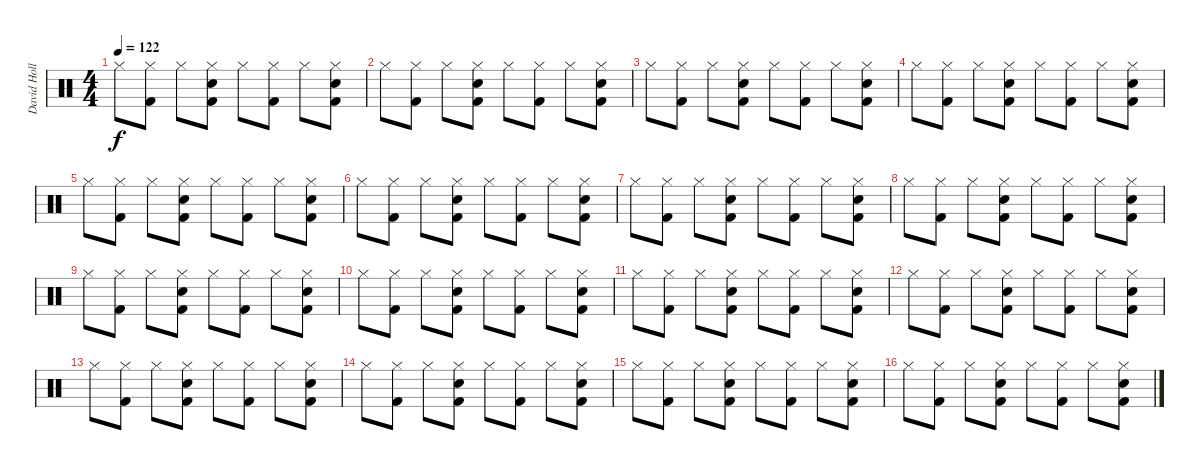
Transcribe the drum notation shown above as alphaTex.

\track ("David Holland" "David Holl") {instrument percussion}
\staff {score}
\articulation defaults
\ts (4 4)
\tempo 122
\clef neutral
\ks c "Hi-Hat (closed)".8{dy f volume 12}
("Kick (hit) 2" "Hi-Hat (closed)").8 "Hi-Hat (closed)".8 ("Electric Snare (hit)" "Kick (hit) 2" "Hi-Hat (closed)").8 "Hi-Hat (closed)".8 ("Kick (hit) 2" "Hi-Hat (closed)").8 "Hi-Hat (closed)".8 ("Electric Snare (hit)" "Kick (hit) 2" "Hi-Hat (closed)").8 |
"Hi-Hat (closed)".8 ("Kick (hit) 2" "Hi-Hat (closed)").8 "Hi-Hat (closed)".8 ("Electric Snare (hit)" "Kick (hit) 2" "Hi-Hat (closed)").8 "Hi-Hat (closed)".8 ("Kick (hit) 2" "Hi-Hat (closed)").8 "Hi-Hat (closed)".8 ("Electric Snare (hit)" "Kick (hit) 2" "Hi-Hat (closed)").8 |
"Hi-Hat (closed)".8 ("Kick (hit) 2" "Hi-Hat (closed)").8 "Hi-Hat (closed)".8 ("Electric Snare (hit)" "Kick (hit) 2" "Hi-Hat (closed)").8 "Hi-Hat (closed)".8 ("Kick (hit) 2" "Hi-Hat (closed)").8 "Hi-Hat (closed)".8 ("Electric Snare (hit)" "Kick (hit) 2" "Hi-Hat (closed)").8 |
"Hi-Hat (closed)".8 ("Kick (hit) 2" "Hi-Hat (closed)").8 "Hi-Hat (closed)".8 ("Electric Snare (hit)" "Kick (hit) 2" "Hi-Hat (closed)").8 "Hi-Hat (closed)".8 ("Kick (hit) 2" "Hi-Hat (closed)").8 "Hi-Hat (closed)".8 ("Electric Snare (hit)" "Kick (hit) 2" "Hi-Hat (closed)").8 |
"Hi-Hat (closed)".8 ("Kick (hit) 2" "Hi-Hat (closed)").8 "Hi-Hat (closed)".8 ("Electric Snare (hit)" "Kick (hit) 2" "Hi-Hat (closed)").8 "Hi-Hat (closed)".8 ("Kick (hit) 2" "Hi-Hat (closed)").8 "Hi-Hat (closed)".8 ("Electric Snare (hit)" "Kick (hit) 2" "Hi-Hat (closed)").8 |
"Hi-Hat (closed)".8 ("Kick (hit) 2" "Hi-Hat (closed)").8 "Hi-Hat (closed)".8 ("Electric Snare (hit)" "Kick (hit) 2" "Hi-Hat (closed)").8 "Hi-Hat (closed)".8 ("Kick (hit) 2" "Hi-Hat (closed)").8 "Hi-Hat (closed)".8 ("Electric Snare (hit)" "Kick (hit) 2" "Hi-Hat (closed)").8 |
"Hi-Hat (closed)".8 ("Kick (hit) 2" "Hi-Hat (closed)").8 "Hi-Hat (closed)".8 ("Electric Snare (hit)" "Kick (hit) 2" "Hi-Hat (closed)").8 "Hi-Hat (closed)".8 ("Kick (hit) 2" "Hi-Hat (closed)").8 "Hi-Hat (closed)".8 ("Electric Snare (hit)" "Kick (hit) 2" "Hi-Hat (closed)").8 |
"Hi-Hat (closed)".8 ("Kick (hit) 2" "Hi-Hat (closed)").8 "Hi-Hat (closed)".8 ("Electric Snare (hit)" "Kick (hit) 2" "Hi-Hat (closed)").8 "Hi-Hat (closed)".8 ("Kick (hit) 2" "Hi-Hat (closed)").8 "Hi-Hat (closed)".8 ("Electric Snare (hit)" "Kick (hit) 2" "Hi-Hat (closed)").8 |
"Hi-Hat (closed)".8 ("Kick (hit) 2" "Hi-Hat (closed)").8 "Hi-Hat (closed)".8 ("Electric Snare (hit)" "Kick (hit) 2" "Hi-Hat (closed)").8 "Hi-Hat (closed)".8 ("Kick (hit) 2" "Hi-Hat (closed)").8 "Hi-Hat (closed)".8 ("Electric Snare (hit)" "Kick (hit) 2" "Hi-Hat (closed)").8 |
"Hi-Hat (closed)".8 ("Kick (hit) 2" "Hi-Hat (closed)").8 "Hi-Hat (closed)".8 ("Electric Snare (hit)" "Kick (hit) 2" "Hi-Hat (closed)").8 "Hi-Hat (closed)".8 ("Kick (hit) 2" "Hi-Hat (closed)").8 "Hi-Hat (closed)".8 ("Electric Snare (hit)" "Kick (hit) 2" "Hi-Hat (closed)").8 |
"Hi-Hat (closed)".8 ("Kick (hit) 2" "Hi-Hat (closed)").8 "Hi-Hat (closed)".8 ("Electric Snare (hit)" "Kick (hit) 2" "Hi-Hat (closed)").8 "Hi-Hat (closed)".8 ("Kick (hit) 2" "Hi-Hat (closed)").8 "Hi-Hat (closed)".8 ("Electric Snare (hit)" "Kick (hit) 2" "Hi-Hat (closed)").8 |
"Hi-Hat (closed)".8 ("Kick (hit) 2" "Hi-Hat (closed)").8 "Hi-Hat (closed)".8 ("Electric Snare (hit)" "Kick (hit) 2" "Hi-Hat (closed)").8 "Hi-Hat (closed)".8 ("Kick (hit) 2" "Hi-Hat (closed)").8 "Hi-Hat (closed)".8 ("Electric Snare (hit)" "Kick (hit) 2" "Hi-Hat (closed)").8 |
"Hi-Hat (closed)".8 ("Kick (hit) 2" "Hi-Hat (closed)").8 "Hi-Hat (closed)".8 ("Electric Snare (hit)" "Kick (hit) 2" "Hi-Hat (closed)").8 "Hi-Hat (closed)".8 ("Kick (hit) 2" "Hi-Hat (closed)").8 "Hi-Hat (closed)".8 ("Electric Snare (hit)" "Kick (hit) 2" "Hi-Hat (closed)").8 |
"Hi-Hat (closed)".8 ("Kick (hit) 2" "Hi-Hat (closed)").8 "Hi-Hat (closed)".8 ("Electric Snare (hit)" "Kick (hit) 2" "Hi-Hat (closed)").8 "Hi-Hat (closed)".8 ("Kick (hit) 2" "Hi-Hat (closed)").8 "Hi-Hat (closed)".8 ("Electric Snare (hit)" "Kick (hit) 2" "Hi-Hat (closed)").8 |
"Hi-Hat (closed)".8 ("Kick (hit) 2" "Hi-Hat (closed)").8 "Hi-Hat (closed)".8 ("Electric Snare (hit)" "Kick (hit) 2" "Hi-Hat (closed)").8 "Hi-Hat (closed)".8 ("Kick (hit) 2" "Hi-Hat (closed)").8 "Hi-Hat (closed)".8 ("Electric Snare (hit)" "Kick (hit) 2" "Hi-Hat (closed)").8 |
"Hi-Hat (closed)".8 ("Kick (hit) 2" "Hi-Hat (closed)").8 "Hi-Hat (closed)".8 ("Electric Snare (hit)" "Kick (hit) 2" "Hi-Hat (closed)").8 "Hi-Hat (closed)".8 ("Kick (hit) 2" "Hi-Hat (closed)").8 "Hi-Hat (closed)".8 ("Electric Snare (hit)" "Kick (hit) 2" "Hi-Hat (closed)").8
